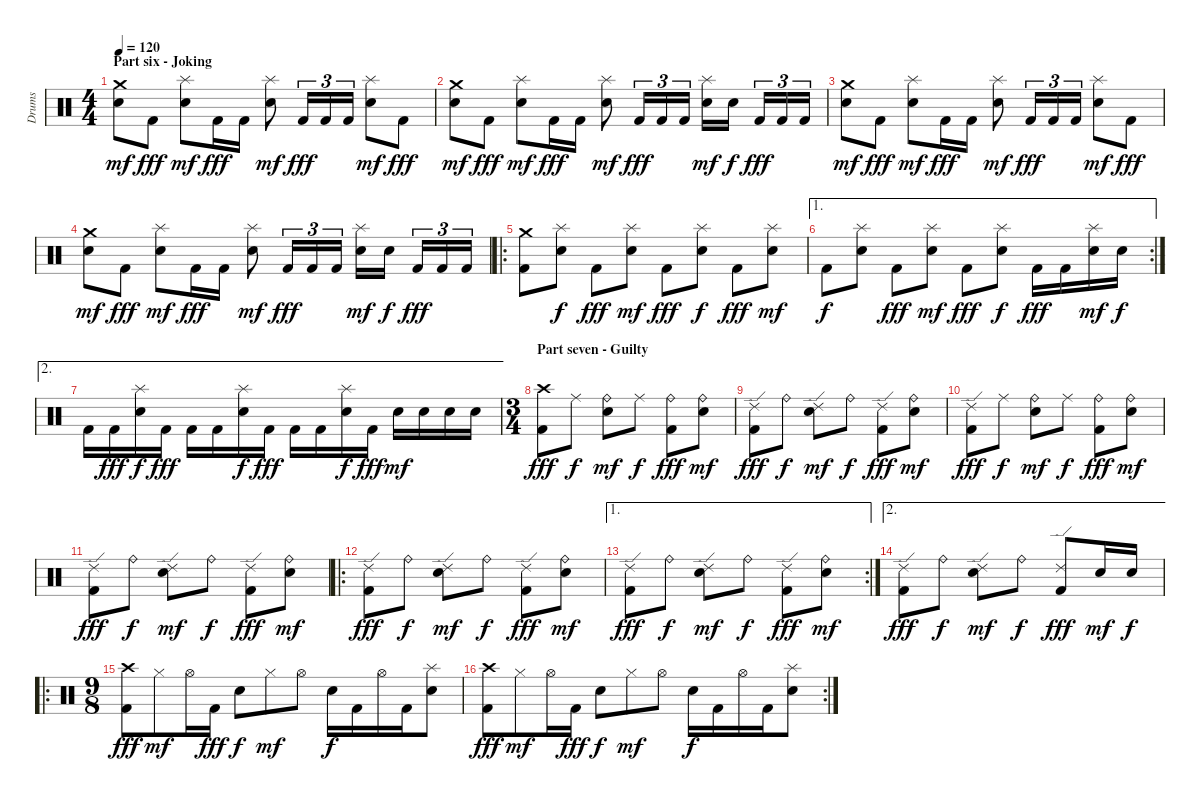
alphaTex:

\track ("Drums" "Drums") {instrument percussion}
\staff {score}
\articulation defaults
\ts (4 4)
\section ("" "Part six - Joking")
\tempo 120
\clef neutral
\ks c
("Crash medium (hit)" "Electric Snare (hit)").8{dy mf} "Kick (hit) 2".8{dy fff} ("Splash (hit)" "Electric Snare (hit)").8{dy mf} "Kick (hit) 2".16{dy fff} "Kick (hit) 2".16 ("Splash (hit)" "Electric Snare (hit)").8{dy mf} "Kick (hit) 2".16{tu (3 2) dy fff} "Kick (hit) 2".16{tu (3 2)} "Kick (hit) 2".16{tu (3 2)} ("Splash (hit)" "Electric Snare (hit)").8{dy mf} "Kick (hit) 2".8{dy fff} |
("Crash medium (hit)" "Electric Snare (hit)").8{dy mf} "Kick (hit) 2".8{dy fff} ("Splash (hit)" "Electric Snare (hit)").8{dy mf} "Kick (hit) 2".16{dy fff} "Kick (hit) 2".16 ("Splash (hit)" "Electric Snare (hit)").8{dy mf} "Kick (hit) 2".16{tu (3 2) dy fff} "Kick (hit) 2".16{tu (3 2)} "Kick (hit) 2".16{tu (3 2)} ("Splash (hit)" "Electric Snare (hit)").16{dy mf} "Electric Snare (hit)".16{dy f} "Kick (hit) 2".16{tu (3 2) dy fff} "Kick (hit) 2".16{tu (3 2)} "Kick (hit) 2".16{tu (3 2)} |
("Crash medium (hit)" "Electric Snare (hit)").8{dy mf} "Kick (hit) 2".8{dy fff} ("Splash (hit)" "Electric Snare (hit)").8{dy mf} "Kick (hit) 2".16{dy fff} "Kick (hit) 2".16 ("Splash (hit)" "Electric Snare (hit)").8{dy mf} "Kick (hit) 2".16{tu (3 2) dy fff} "Kick (hit) 2".16{tu (3 2)} "Kick (hit) 2".16{tu (3 2)} ("Splash (hit)" "Electric Snare (hit)").8{dy mf} "Kick (hit) 2".8{dy fff} |
("Crash medium (hit)" "Electric Snare (hit)").8{dy mf} "Kick (hit) 2".8{dy fff} ("Splash (hit)" "Electric Snare (hit)").8{dy mf} "Kick (hit) 2".16{dy fff} "Kick (hit) 2".16 ("Splash (hit)" "Electric Snare (hit)").8{dy mf} "Kick (hit) 2".16{tu (3 2) dy fff} "Kick (hit) 2".16{tu (3 2)} "Kick (hit) 2".16{tu (3 2)} ("Splash (hit)" "Electric Snare (hit)").16{dy mf} "Electric Snare (hit)".16{dy f} "Kick (hit) 2".16{tu (3 2) dy fff} "Kick (hit) 2".16{tu (3 2)} "Kick (hit) 2".16{tu (3 2)} |
\ro
("Crash medium (hit)" "Kick (hit) 2").8 ("Splash (hit)" "Electric Snare (hit)").8{dy f} "Kick (hit) 2".8{dy fff} ("Splash (hit)" "Electric Snare (hit)").8{dy mf} "Kick (hit) 2".8{dy fff} ("Splash (hit)" "Electric Snare (hit)").8{dy f} "Kick (hit) 2".8{dy fff} ("Splash (hit)" "Electric Snare (hit)").8{dy mf} |
\ae 1
\rc 2 "Kick (hit) 2".8{dy f}
("Splash (hit)" "Electric Snare (hit)").8 "Kick (hit) 2".8{dy fff} ("Splash (hit)" "Electric Snare (hit)").8{dy mf} "Kick (hit) 2".8{dy fff} ("Splash (hit)" "Electric Snare (hit)").8{dy f} "Kick (hit) 2".16{dy fff} "Kick (hit) 2".16 ("Splash (hit)" "Electric Snare (hit)").16{dy mf} "Electric Snare (hit)".16{dy f} |
\ae 2 "Kick (hit) 2".16 "Kick (hit) 2".16{dy fff}
("Splash (hit)" "Electric Snare (hit)").16{dy f} "Kick (hit) 2".16{dy fff} "Kick (hit) 2".16 "Kick (hit) 2".16 ("Splash (hit)" "Electric Snare (hit)").16{dy f} "Kick (hit) 2".16{dy fff} "Kick (hit) 2".16 "Kick (hit) 2".16 ("Splash (hit)" "Electric Snare (hit)").16{dy f} "Kick (hit) 2".16{dy fff} "Electric Snare (hit)".16{dy mf} "Electric Snare (hit)".16 "Electric Snare (hit)".16 "Electric Snare (hit)".16 |
\ts (3 4)
\section ("" "Part seven - Guilty")
("Crash high (hit)" "Kick (hit) 2").8{dy fff} "Ride (middle)".8{dy f} ("Ride (bell)" "Electric Snare (hit)").8{dy mf} "Ride (middle)".8{dy f} ("Ride (bell)" "Kick (hit) 2").8{dy fff} ("Ride (bell)" "Electric Snare (hit)").8{dy mf} |
("Ride (edge) 2" "Kick (hit) 2").8{dy fff} "Ride (bell)".8{dy f} ("Ride (edge) 2" "Electric Snare (hit)").8{dy mf} "Ride (bell)".8{dy f} ("Ride (edge) 2" "Kick (hit) 2").8{dy fff} ("Ride (bell)" "Electric Snare (hit)").8{dy mf} |
("Ride (edge) 2" "Kick (hit) 2").8{dy fff} "Ride (middle)".8{dy f} ("Ride (bell)" "Electric Snare (hit)").8{dy mf} "Ride (middle)".8{dy f} ("Ride (bell)" "Kick (hit) 2").8{dy fff} ("Ride (bell)" "Electric Snare (hit)").8{dy mf} |
("Ride (edge) 2" "Kick (hit) 2").8{dy fff} "Ride (bell)".8{dy f} ("Ride (edge) 2" "Electric Snare (hit)").8{dy mf} "Ride (bell)".8{dy f} ("Ride (edge) 2" "Kick (hit) 2").8{dy fff} ("Ride (bell)" "Electric Snare (hit)").8{dy mf} |
\ro
("Ride (edge) 2" "Kick (hit) 2").8{dy fff} "Ride (bell)".8{dy f} ("Ride (edge) 2" "Electric Snare (hit)").8{dy mf} "Ride (bell)".8{dy f} ("Ride (edge) 2" "Kick (hit) 2").8{dy fff} ("Ride (bell)" "Electric Snare (hit)").8{dy mf} |
\ae 1
\rc 2
("Ride (edge) 2" "Kick (hit) 2").8{dy fff} "Ride (bell)".8{dy f} ("Ride (edge) 2" "Electric Snare (hit)").8{dy mf} "Ride (bell)".8{dy f} ("Ride (edge) 2" "Kick (hit) 2").8{dy fff} ("Ride (bell)" "Electric Snare (hit)").8{dy mf} |
\ae 2
("Ride (edge) 2" "Kick (hit) 2").8{dy fff} "Ride (bell)".8{dy f} ("Ride (edge) 2" "Electric Snare (hit)").8{dy mf} "Ride (bell)".8{dy f} ("Ride (edge) 2" "Kick (hit) 2").8{dy fff} "Electric Snare (hit)".16{dy mf} "Electric Snare (hit)".16{dy f} |
\ro
\ts (9 8)
("Crash high (hit)" "Kick (hit) 2").8{dy fff} "Hi-Hat (closed)".8{dy mf} "Hi-Hat (open)".16 "Kick (hit) 2".16{dy fff} "Electric Snare (hit)".8{dy f} "Hi-Hat (closed)".8{dy mf} "Hi-Hat (open)".8 "Electric Snare (hit)".16{dy f} "Kick (hit) 2".16 "Hi-Hat (open)".16 "Kick (hit) 2".16 ("Splash (hit)" "Electric Snare (hit)").8 |
\rc 2
("Crash high (hit)" "Kick (hit) 2").8{dy fff} "Hi-Hat (closed)".8{dy mf} "Hi-Hat (open)".16 "Kick (hit) 2".16{dy fff} "Electric Snare (hit)".8{dy f} "Hi-Hat (closed)".8{dy mf} "Hi-Hat (open)".8 "Electric Snare (hit)".16{dy f} "Kick (hit) 2".16 "Hi-Hat (open)".16 "Kick (hit) 2".16 ("Splash (hit)" "Electric Snare (hit)").8
